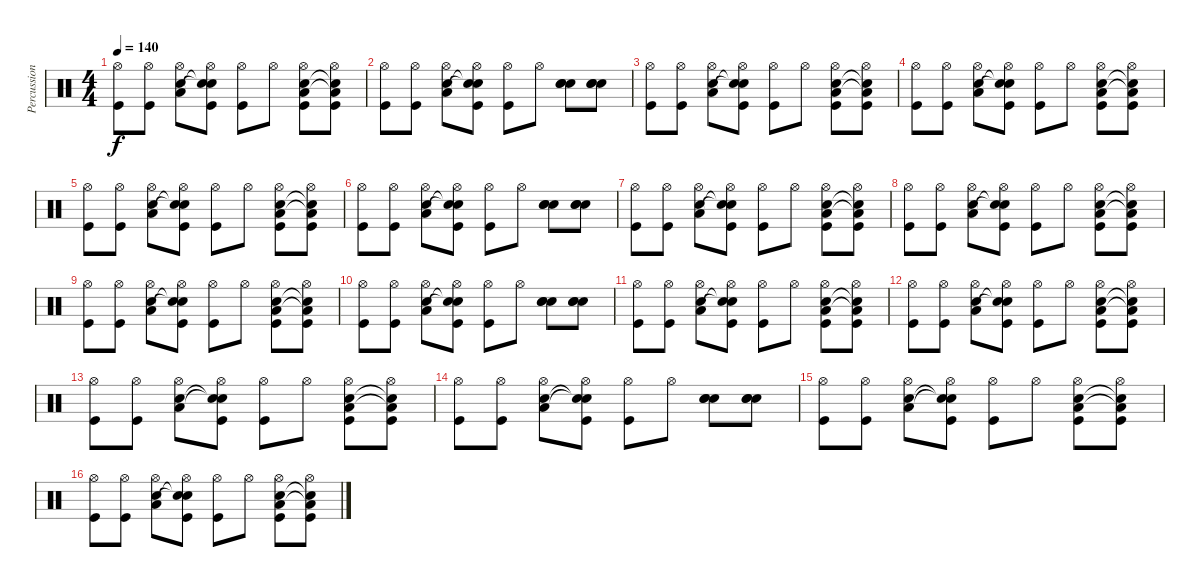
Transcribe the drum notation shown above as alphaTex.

\track ("Percussion" "Percussion") {instrument percussion}
\staff {score}
\articulation defaults
\ts (4 4)
\tempo 140
\clef neutral
\ks c
("Hi-Hat (open)" "Kick (hit)").8{dy f} ("Hi-Hat (open)" "Kick (hit)").8 ("Hi-Hat (open)" "Snare (hit) 2" "Low Tom (hit)").8 ("Hi-Hat (open)" "Snare (hit) 2"{t} "Snare (hit)"{t} "Kick (hit)").8 ("Hi-Hat (open)" "Kick (hit)").8 "Hi-Hat (open)".8 ("Hi-Hat (open)" "Low Tom (hit)" "Snare (hit) 2" "Kick (hit)").8 ("Hi-Hat (open)" "Low Tom (hit)"{t} "Snare (hit) 2"{t} "Kick (hit)").8 |
("Hi-Hat (open)" "Kick (hit)").8 ("Hi-Hat (open)" "Kick (hit)").8 ("Hi-Hat (open)" "Low Tom (hit)" "Snare (hit) 2").8 ("Hi-Hat (open)" "Snare (hit) 2"{t} "Snare (hit)"{t} "Kick (hit)").8 ("Hi-Hat (open)" "Kick (hit)").8 "Hi-Hat (open)".8 ("Snare (hit) 2" "Snare (hit) 2" "Snare (hit) 2").8 ("Snare (hit) 2" "Snare (hit) 2" "Snare (hit) 2").8 |
("Hi-Hat (open)" "Kick (hit)").8 ("Hi-Hat (open)" "Kick (hit)").8 ("Hi-Hat (open)" "Snare (hit) 2" "Low Tom (hit)").8 ("Hi-Hat (open)" "Snare (hit) 2"{t} "Snare (hit)"{t} "Kick (hit)").8 ("Hi-Hat (open)" "Kick (hit)").8 "Hi-Hat (open)".8 ("Hi-Hat (open)" "Low Tom (hit)" "Snare (hit) 2" "Kick (hit)").8 ("Hi-Hat (open)" "Low Tom (hit)"{t} "Snare (hit) 2"{t} "Kick (hit)").8 |
("Hi-Hat (open)" "Kick (hit)").8 ("Hi-Hat (open)" "Kick (hit)").8 ("Hi-Hat (open)" "Low Tom (hit)" "Snare (hit) 2").8 ("Hi-Hat (open)" "Snare (hit) 2"{t} "Snare (hit)"{t} "Kick (hit)").8 ("Hi-Hat (open)" "Kick (hit)").8 "Hi-Hat (open)".8 ("Hi-Hat (open)" "Low Tom (hit)" "Snare (hit) 2" "Kick (hit)").8 ("Hi-Hat (open)" "Low Tom (hit)"{t} "Snare (hit) 2"{t} "Kick (hit)").8 |
("Hi-Hat (open)" "Kick (hit)").8 ("Hi-Hat (open)" "Kick (hit)").8 ("Hi-Hat (open)" "Snare (hit) 2" "Low Tom (hit)").8 ("Hi-Hat (open)" "Snare (hit) 2"{t} "Snare (hit)"{t} "Kick (hit)").8 ("Hi-Hat (open)" "Kick (hit)").8 "Hi-Hat (open)".8 ("Hi-Hat (open)" "Low Tom (hit)" "Snare (hit) 2" "Kick (hit)").8 ("Hi-Hat (open)" "Low Tom (hit)"{t} "Snare (hit) 2"{t} "Kick (hit)").8 |
("Hi-Hat (open)" "Kick (hit)").8 ("Hi-Hat (open)" "Kick (hit)").8 ("Hi-Hat (open)" "Low Tom (hit)" "Snare (hit) 2").8 ("Hi-Hat (open)" "Snare (hit) 2"{t} "Snare (hit)"{t} "Kick (hit)").8 ("Hi-Hat (open)" "Kick (hit)").8 "Hi-Hat (open)".8 ("Snare (hit) 2" "Snare (hit) 2" "Snare (hit) 2").8 ("Snare (hit) 2" "Snare (hit) 2" "Snare (hit) 2").8 |
("Hi-Hat (open)" "Kick (hit)").8 ("Hi-Hat (open)" "Kick (hit)").8 ("Hi-Hat (open)" "Snare (hit) 2" "Low Tom (hit)").8 ("Hi-Hat (open)" "Snare (hit) 2"{t} "Snare (hit)"{t} "Kick (hit)").8 ("Hi-Hat (open)" "Kick (hit)").8 "Hi-Hat (open)".8 ("Hi-Hat (open)" "Low Tom (hit)" "Snare (hit) 2" "Kick (hit)").8 ("Hi-Hat (open)" "Low Tom (hit)"{t} "Snare (hit) 2"{t} "Kick (hit)").8 |
("Hi-Hat (open)" "Kick (hit)").8 ("Hi-Hat (open)" "Kick (hit)").8 ("Hi-Hat (open)" "Low Tom (hit)" "Snare (hit) 2").8 ("Hi-Hat (open)" "Snare (hit) 2"{t} "Snare (hit)"{t} "Kick (hit)").8 ("Hi-Hat (open)" "Kick (hit)").8 "Hi-Hat (open)".8 ("Hi-Hat (open)" "Low Tom (hit)" "Snare (hit) 2" "Kick (hit)").8 ("Hi-Hat (open)" "Low Tom (hit)"{t} "Snare (hit) 2"{t} "Kick (hit)").8 |
("Hi-Hat (open)" "Kick (hit)").8 ("Hi-Hat (open)" "Kick (hit)").8 ("Hi-Hat (open)" "Snare (hit) 2" "Low Tom (hit)").8 ("Hi-Hat (open)" "Snare (hit) 2"{t} "Snare (hit)"{t} "Kick (hit)").8 ("Hi-Hat (open)" "Kick (hit)").8 "Hi-Hat (open)".8 ("Hi-Hat (open)" "Low Tom (hit)" "Snare (hit) 2" "Kick (hit)").8 ("Hi-Hat (open)" "Low Tom (hit)"{t} "Snare (hit) 2"{t} "Kick (hit)").8 |
("Hi-Hat (open)" "Kick (hit)").8 ("Hi-Hat (open)" "Kick (hit)").8 ("Hi-Hat (open)" "Low Tom (hit)" "Snare (hit) 2").8 ("Hi-Hat (open)" "Snare (hit) 2"{t} "Snare (hit)"{t} "Kick (hit)").8 ("Hi-Hat (open)" "Kick (hit)").8 "Hi-Hat (open)".8 ("Snare (hit) 2" "Snare (hit) 2" "Snare (hit) 2").8 ("Snare (hit) 2" "Snare (hit) 2" "Snare (hit) 2").8 |
("Hi-Hat (open)" "Kick (hit)").8 ("Hi-Hat (open)" "Kick (hit)").8 ("Hi-Hat (open)" "Snare (hit) 2" "Low Tom (hit)").8 ("Hi-Hat (open)" "Snare (hit) 2"{t} "Snare (hit)"{t} "Kick (hit)").8 ("Hi-Hat (open)" "Kick (hit)").8 "Hi-Hat (open)".8 ("Hi-Hat (open)" "Low Tom (hit)" "Snare (hit) 2" "Kick (hit)").8 ("Hi-Hat (open)" "Low Tom (hit)"{t} "Snare (hit) 2"{t} "Kick (hit)").8 |
("Hi-Hat (open)" "Kick (hit)").8 ("Hi-Hat (open)" "Kick (hit)").8 ("Hi-Hat (open)" "Low Tom (hit)" "Snare (hit) 2").8 ("Hi-Hat (open)" "Snare (hit) 2"{t} "Snare (hit)"{t} "Kick (hit)").8 ("Hi-Hat (open)" "Kick (hit)").8 "Hi-Hat (open)".8 ("Hi-Hat (open)" "Low Tom (hit)" "Snare (hit) 2" "Kick (hit)").8 ("Hi-Hat (open)" "Low Tom (hit)"{t} "Snare (hit) 2"{t} "Kick (hit)").8 |
("Hi-Hat (open)" "Kick (hit)").8 ("Hi-Hat (open)" "Kick (hit)").8 ("Hi-Hat (open)" "Snare (hit) 2" "Low Tom (hit)").8 ("Hi-Hat (open)" "Snare (hit) 2"{t} "Snare (hit)"{t} "Kick (hit)").8 ("Hi-Hat (open)" "Kick (hit)").8 "Hi-Hat (open)".8 ("Hi-Hat (open)" "Low Tom (hit)" "Snare (hit) 2" "Kick (hit)").8 ("Hi-Hat (open)" "Low Tom (hit)"{t} "Snare (hit) 2"{t} "Kick (hit)").8 |
("Hi-Hat (open)" "Kick (hit)").8 ("Hi-Hat (open)" "Kick (hit)").8 ("Hi-Hat (open)" "Low Tom (hit)" "Snare (hit) 2").8 ("Hi-Hat (open)" "Snare (hit) 2"{t} "Snare (hit)"{t} "Kick (hit)").8 ("Hi-Hat (open)" "Kick (hit)").8 "Hi-Hat (open)".8 ("Snare (hit) 2" "Snare (hit) 2" "Snare (hit) 2").8 ("Snare (hit) 2" "Snare (hit) 2" "Snare (hit) 2").8 |
("Hi-Hat (open)" "Kick (hit)").8 ("Hi-Hat (open)" "Kick (hit)").8 ("Hi-Hat (open)" "Snare (hit) 2" "Low Tom (hit)").8 ("Hi-Hat (open)" "Snare (hit) 2"{t} "Snare (hit)"{t} "Kick (hit)").8 ("Hi-Hat (open)" "Kick (hit)").8 "Hi-Hat (open)".8 ("Hi-Hat (open)" "Low Tom (hit)" "Snare (hit) 2" "Kick (hit)").8 ("Hi-Hat (open)" "Low Tom (hit)"{t} "Snare (hit) 2"{t} "Kick (hit)").8 |
("Hi-Hat (open)" "Kick (hit)").8 ("Hi-Hat (open)" "Kick (hit)").8 ("Hi-Hat (open)" "Low Tom (hit)" "Snare (hit) 2").8 ("Hi-Hat (open)" "Snare (hit) 2"{t} "Snare (hit)"{t} "Kick (hit)").8 ("Hi-Hat (open)" "Kick (hit)").8 "Hi-Hat (open)".8 ("Hi-Hat (open)" "Low Tom (hit)" "Snare (hit) 2" "Kick (hit)").8 ("Hi-Hat (open)" "Low Tom (hit)"{t} "Snare (hit) 2"{t} "Kick (hit)").8
